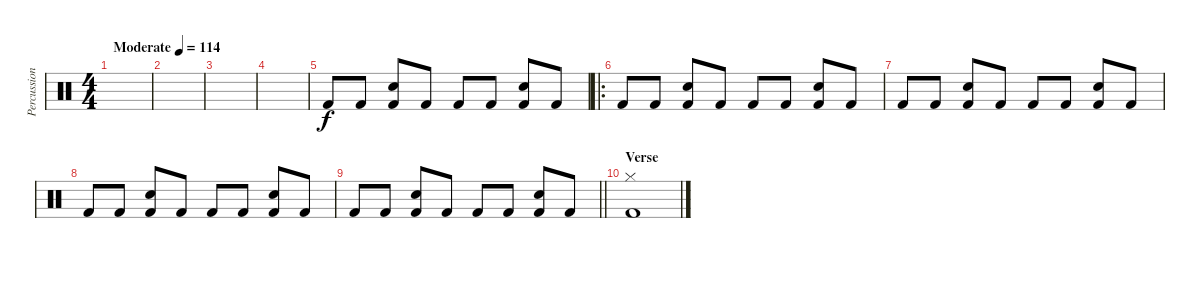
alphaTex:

\track ("Percussion" "Percussion") {instrument percussion}
\staff {score}
\articulation defaults
\ts (4 4)
\tempo (114 "Moderate")
\clef neutral
\ks c
|
|
|
|
"Kick (hit) 2".8{volume 12} "Kick (hit) 2".8 ("Snare (hit) 2" "Kick (hit) 2").8 "Kick (hit) 2".8 "Kick (hit) 2".8 "Kick (hit) 2".8 ("Snare (hit) 2" "Kick (hit) 2").8 "Kick (hit) 2".8 |
\ro "Kick (hit) 2".8 "Kick (hit) 2".8
("Snare (hit) 2" "Kick (hit) 2").8 "Kick (hit) 2".8 "Kick (hit) 2".8 "Kick (hit) 2".8 ("Snare (hit) 2" "Kick (hit) 2").8 "Kick (hit) 2".8 |
"Kick (hit) 2".8 "Kick (hit) 2".8 ("Snare (hit) 2" "Kick (hit) 2").8 "Kick (hit) 2".8 "Kick (hit) 2".8 "Kick (hit) 2".8 ("Snare (hit) 2" "Kick (hit) 2").8 "Kick (hit) 2".8 |
"Kick (hit) 2".8 "Kick (hit) 2".8 ("Snare (hit) 2" "Kick (hit) 2").8 "Kick (hit) 2".8 "Kick (hit) 2".8 "Kick (hit) 2".8 ("Snare (hit) 2" "Kick (hit) 2").8 "Kick (hit) 2".8 |
\barLineRight lightlight "Kick (hit) 2".8 "Kick (hit) 2".8
("Snare (hit) 2" "Kick (hit) 2").8 "Kick (hit) 2".8 "Kick (hit) 2".8 "Kick (hit) 2".8 ("Snare (hit) 2" "Kick (hit) 2").8 "Kick (hit) 2".8 |
\section ("" "Verse")
("Hi-Hat (closed)" "Kick (hit) 2").1
